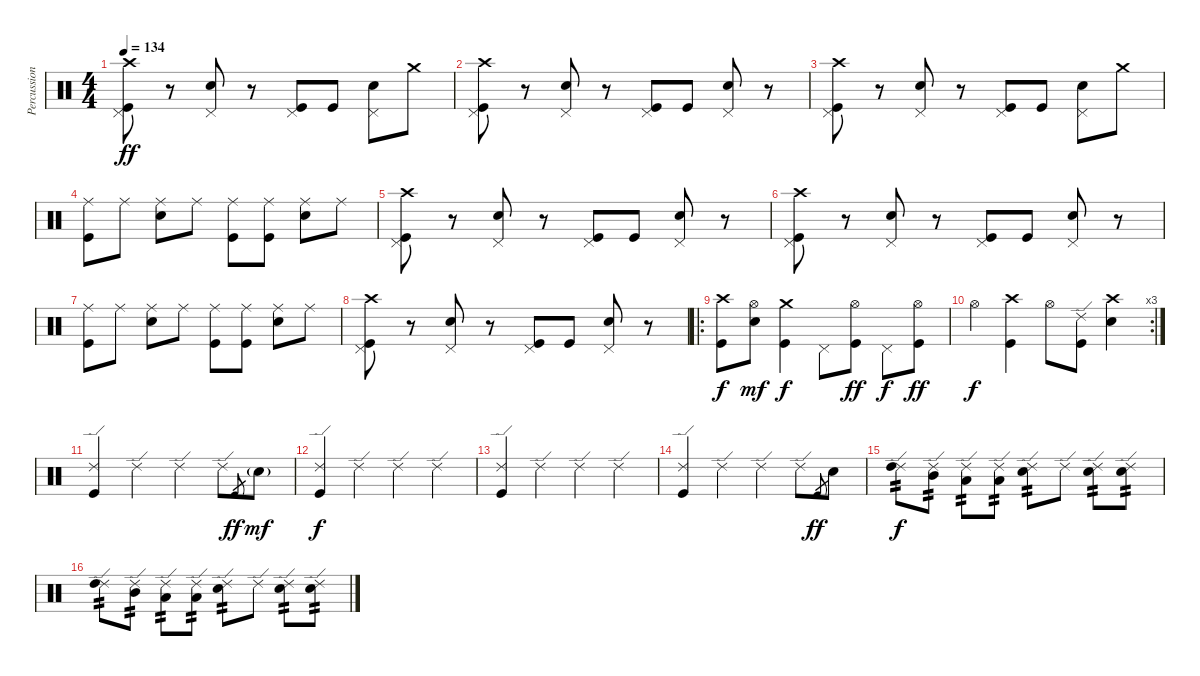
\track ("Percussion" "Percussion") {instrument percussion}
\staff {score}
\articulation defaults
\ts (4 4)
\tempo 134
\clef neutral
\ks c
("Crash high (hit)" "Kick (hit)" "Pedal Hi-Hat (hit)").8{dy ff} r.8 ("Electric Snare (hit)" "Pedal Hi-Hat (hit)").8 r.8 ("Kick (hit)" "Pedal Hi-Hat (hit)").8 "Kick (hit)".8 ("Electric Snare (hit)" "Pedal Hi-Hat (hit)").8 "Crash medium (hit)".8 |
("Crash high (hit)" "Kick (hit)" "Pedal Hi-Hat (hit)").8 r.8 ("Electric Snare (hit)" "Pedal Hi-Hat (hit)").8 r.8 ("Kick (hit)" "Pedal Hi-Hat (hit)").8 "Kick (hit)".8 ("Electric Snare (hit)" "Pedal Hi-Hat (hit)").8 r.8 |
("Crash high (hit)" "Kick (hit)" "Pedal Hi-Hat (hit)").8 r.8 ("Electric Snare (hit)" "Pedal Hi-Hat (hit)").8 r.8 ("Kick (hit)" "Pedal Hi-Hat (hit)").8 "Kick (hit)".8 ("Electric Snare (hit)" "Pedal Hi-Hat (hit)").8 "Crash medium (hit)".8 |
("Kick (hit)" "Ride (middle)").8 "Ride (middle)".8 ("Electric Snare (hit)" "Ride (middle)").8 "Ride (middle)".8 ("Kick (hit)" "Ride (middle)").8 ("Kick (hit)" "Ride (middle)").8 ("Electric Snare (hit)" "Ride (middle)").8 "Ride (middle)".8 |
("Crash high (hit)" "Kick (hit)" "Pedal Hi-Hat (hit)").8 r.8 ("Electric Snare (hit)" "Pedal Hi-Hat (hit)").8 r.8 ("Kick (hit)" "Pedal Hi-Hat (hit)").8 "Kick (hit)".8 ("Electric Snare (hit)" "Pedal Hi-Hat (hit)").8 r.8 |
("Crash high (hit)" "Kick (hit)" "Pedal Hi-Hat (hit)").8 r.8 ("Electric Snare (hit)" "Pedal Hi-Hat (hit)").8 r.8 ("Kick (hit)" "Pedal Hi-Hat (hit)").8 "Kick (hit)".8 ("Electric Snare (hit)" "Pedal Hi-Hat (hit)").8 r.8 |
("Kick (hit)" "Ride (middle)").8 "Ride (middle)".8 ("Electric Snare (hit)" "Ride (middle)").8 "Ride (middle)".8 ("Kick (hit)" "Ride (middle)").8 ("Kick (hit)" "Ride (middle)").8 ("Electric Snare (hit)" "Ride (middle)").8 "Ride (middle)".8 |
("Crash high (hit)" "Kick (hit)" "Pedal Hi-Hat (hit)").8 r.8 ("Electric Snare (hit)" "Pedal Hi-Hat (hit)").8 r.8 ("Kick (hit)" "Pedal Hi-Hat (hit)").8 "Kick (hit)".8 ("Electric Snare (hit)" "Pedal Hi-Hat (hit)").8 r.8 |
\ro
("Crash high (hit)" "Kick (hit)").8{dy f} ("Hi-Hat (open)" "Electric Snare (hit)").8{dy mf} ("Crash medium (hit)" "Kick (hit)").4{dy f} "Pedal Hi-Hat (hit)".8 ("Hi-Hat (open)" "Kick (hit)").8{dy ff} "Pedal Hi-Hat (hit)".8{dy f} ("Hi-Hat (open)" "Kick (hit)").8{dy ff} |
\rc 3 "Hi-Hat (open)".4{dy f}
("Crash high (hit)" "Kick (hit)").4 "Hi-Hat (open)".8 ("Ride (edge) 2" "Kick (hit)").8 ("Crash high (hit)" "Electric Snare (hit)").4 |
("Kick (hit)" "Ride (edge) 2").4 "Ride (edge) 2".4 "Ride (edge) 2".4 "Ride (edge) 2".8 "Kick (hit)".8{gr dy ff} "Electric Snare (hit)"{g}.8{dy mf} |
("Kick (hit)" "Ride (edge) 2").4{dy f} "Ride (edge) 2".4 "Ride (edge) 2".4 "Ride (edge) 2".4 |
("Kick (hit)" "Ride (edge) 2").4 "Ride (edge) 2".4 "Ride (edge) 2".4 "Ride (edge) 2".4 |
("Kick (hit)" "Ride (edge) 2").4 "Ride (edge) 2".4 "Ride (edge) 2".4 "Ride (edge) 2".8 "Kick (hit)".8{gr dy ff} "Electric Snare (hit)".8 |
("Ride (edge) 2" "High Tom (hit)").8{tp 2 dy f} ("Ride (edge) 2" "Mid Tom (hit)").8{tp 2} ("Ride (edge) 2" "Low Tom (hit)").8{tp 2} ("Ride (edge) 2" "Low Floor Tom (hit)").8{tp 2} ("Ride (edge) 2" "Electric Snare (hit)").8{tp 2} "Ride (edge) 2".8 ("Ride (edge) 2" "Electric Snare (hit)").8{tp 2} ("Ride (edge) 2" "Electric Snare (hit)").8{tp 2} |
("Ride (edge) 2" "High Tom (hit)").8{tp 2} ("Ride (edge) 2" "Mid Tom (hit)").8{tp 2} ("Ride (edge) 2" "Low Tom (hit)").8{tp 2} ("Ride (edge) 2" "Low Floor Tom (hit)").8{tp 2} ("Ride (edge) 2" "Electric Snare (hit)").8{tp 2} "Ride (edge) 2".8 ("Ride (edge) 2" "Electric Snare (hit)").8{tp 2} ("Ride (edge) 2" "Electric Snare (hit)").8{tp 2}
